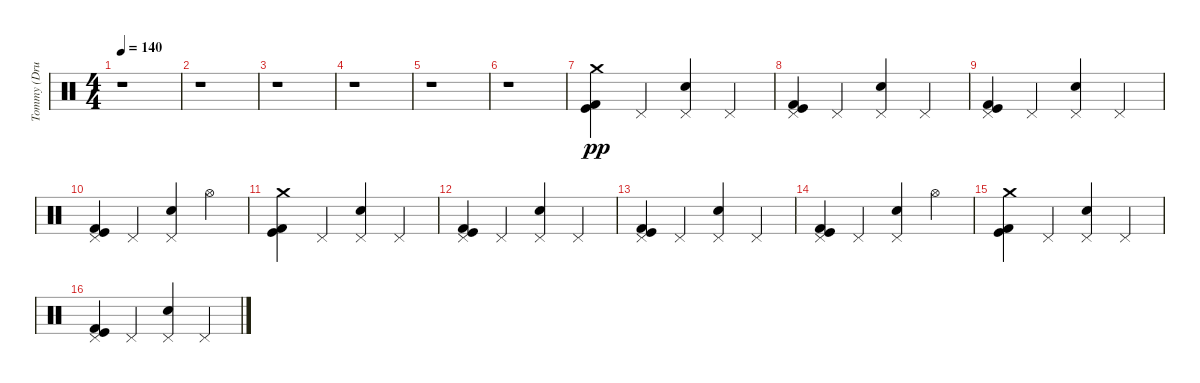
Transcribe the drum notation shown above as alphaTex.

\track ("Tommy (Drums)" "Tommy (Dru") {instrument percussion}
\staff {score}
\articulation defaults
\ts (4 4)
\tempo 140
\clef neutral
\ks c
r.1{dy pp} |
r.1 |
r.1 |
r.1 |
r.1 |
r.1 |
("Kick (hit) 2" "Kick (hit)" "Crash medium (hit)").4 "Pedal Hi-Hat (hit)".4 ("Pedal Hi-Hat (hit)" "Snare (hit) 2").4 "Pedal Hi-Hat (hit)".4 |
("Pedal Hi-Hat (hit)" "Kick (hit) 2" "Kick (hit)").4 "Pedal Hi-Hat (hit)".4 ("Pedal Hi-Hat (hit)" "Snare (hit) 2").4 "Pedal Hi-Hat (hit)".4 |
("Pedal Hi-Hat (hit)" "Kick (hit) 2" "Kick (hit)").4 "Pedal Hi-Hat (hit)".4 ("Pedal Hi-Hat (hit)" "Snare (hit) 2").4 "Pedal Hi-Hat (hit)".4 |
("Pedal Hi-Hat (hit)" "Kick (hit) 2" "Kick (hit)").4 "Pedal Hi-Hat (hit)".4 ("Pedal Hi-Hat (hit)" "Snare (hit) 2").4 "Hi-Hat (open)".4 |
("Kick (hit) 2" "Kick (hit)" "Crash medium (hit)").4 "Pedal Hi-Hat (hit)".4 ("Pedal Hi-Hat (hit)" "Snare (hit) 2").4 "Pedal Hi-Hat (hit)".4 |
("Pedal Hi-Hat (hit)" "Kick (hit) 2" "Kick (hit)").4 "Pedal Hi-Hat (hit)".4 ("Pedal Hi-Hat (hit)" "Snare (hit) 2").4 "Pedal Hi-Hat (hit)".4 |
("Pedal Hi-Hat (hit)" "Kick (hit) 2" "Kick (hit)").4 "Pedal Hi-Hat (hit)".4 ("Pedal Hi-Hat (hit)" "Snare (hit) 2").4 "Pedal Hi-Hat (hit)".4 |
("Pedal Hi-Hat (hit)" "Kick (hit) 2" "Kick (hit)").4 "Pedal Hi-Hat (hit)".4 ("Pedal Hi-Hat (hit)" "Snare (hit) 2").4 "Hi-Hat (open)".4 |
("Kick (hit) 2" "Kick (hit)" "Crash medium (hit)").4 "Pedal Hi-Hat (hit)".4 ("Pedal Hi-Hat (hit)" "Snare (hit) 2").4 "Pedal Hi-Hat (hit)".4 |
("Pedal Hi-Hat (hit)" "Kick (hit) 2" "Kick (hit)").4 "Pedal Hi-Hat (hit)".4 ("Pedal Hi-Hat (hit)" "Snare (hit) 2").4 "Pedal Hi-Hat (hit)".4
